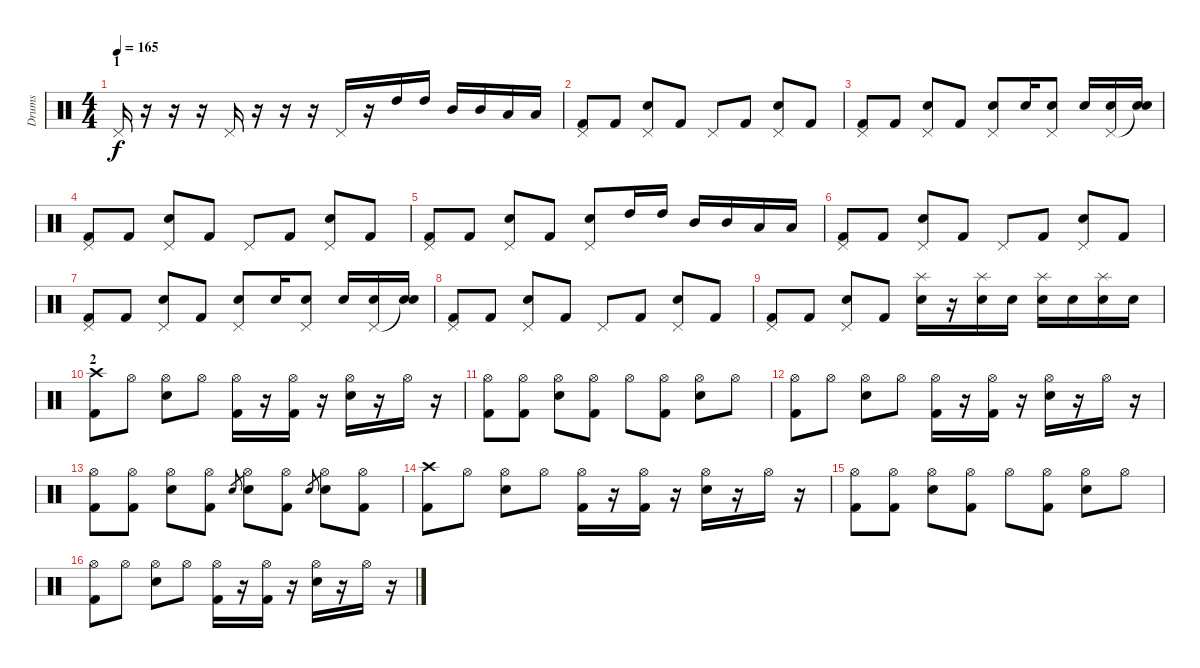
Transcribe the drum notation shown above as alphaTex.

\track ("Drums" "Drums") {instrument percussion}
\staff {score}
\articulation defaults
\ts (4 4)
\section ("" "1")
\tempo 165
\clef neutral
\ks c "Pedal Hi-Hat (hit)".16{dy f}
r.16 r.16 r.16 "Pedal Hi-Hat (hit)".16 r.16 r.16 r.16 "Pedal Hi-Hat (hit)".16 r.16 "High Tom (hit)".16 "High Tom (hit)".16 "Mid Tom (hit)".16 "Mid Tom (hit)".16 "Low Tom (hit)".16 "Low Tom (hit)".16 |
("Pedal Hi-Hat (hit)" "Kick (hit) 2").8 "Kick (hit) 2".8 ("Pedal Hi-Hat (hit)" "Snare (hit) 2").8 "Kick (hit) 2".8 "Pedal Hi-Hat (hit)".8 "Kick (hit) 2".8 ("Pedal Hi-Hat (hit)" "Snare (hit) 2").8 "Kick (hit) 2".8 |
("Pedal Hi-Hat (hit)" "Kick (hit) 2").8 "Kick (hit) 2".8 ("Pedal Hi-Hat (hit)" "Snare (hit) 2").8 "Kick (hit) 2".8 ("Pedal Hi-Hat (hit)" "Snare (hit) 2").8 "Snare (hit) 2".16 ("Pedal Hi-Hat (hit)" "Snare (hit) 2").8 "Snare (hit) 2".16 ("Pedal Hi-Hat (hit)" "Snare (hit) 2").16 ("Snare (hit)"{t} "Snare (hit) 2").16 |
("Pedal Hi-Hat (hit)" "Kick (hit) 2").8 "Kick (hit) 2".8 ("Pedal Hi-Hat (hit)" "Snare (hit) 2").8 "Kick (hit) 2".8 "Pedal Hi-Hat (hit)".8 "Kick (hit) 2".8 ("Pedal Hi-Hat (hit)" "Snare (hit) 2").8 "Kick (hit) 2".8 |
("Pedal Hi-Hat (hit)" "Kick (hit) 2").8 "Kick (hit) 2".8 ("Pedal Hi-Hat (hit)" "Snare (hit) 2").8 "Kick (hit) 2".8 ("Pedal Hi-Hat (hit)" "Snare (hit) 2").8 "High Tom (hit)".16 "High Tom (hit)".16 "Mid Tom (hit)".16 "Mid Tom (hit)".16 "Low Tom (hit)".16 "Low Tom (hit)".16 |
("Pedal Hi-Hat (hit)" "Kick (hit) 2").8 "Kick (hit) 2".8 ("Pedal Hi-Hat (hit)" "Snare (hit) 2").8 "Kick (hit) 2".8 "Pedal Hi-Hat (hit)".8 "Kick (hit) 2".8 ("Pedal Hi-Hat (hit)" "Snare (hit) 2").8 "Kick (hit) 2".8 |
("Pedal Hi-Hat (hit)" "Kick (hit) 2").8 "Kick (hit) 2".8 ("Pedal Hi-Hat (hit)" "Snare (hit) 2").8 "Kick (hit) 2".8 ("Pedal Hi-Hat (hit)" "Snare (hit) 2").8 "Snare (hit) 2".16 ("Pedal Hi-Hat (hit)" "Snare (hit) 2").8 "Snare (hit) 2".16 ("Pedal Hi-Hat (hit)" "Snare (hit) 2").16 ("Snare (hit)"{t} "Snare (hit) 2").16 |
("Pedal Hi-Hat (hit)" "Kick (hit) 2").8 "Kick (hit) 2".8 ("Pedal Hi-Hat (hit)" "Snare (hit) 2").8 "Kick (hit) 2".8 "Pedal Hi-Hat (hit)".8 "Kick (hit) 2".8 ("Pedal Hi-Hat (hit)" "Snare (hit) 2").8 "Kick (hit) 2".8 |
("Pedal Hi-Hat (hit)" "Kick (hit) 2").8 "Kick (hit) 2".8 ("Pedal Hi-Hat (hit)" "Snare (hit) 2").8 "Kick (hit) 2".8 ("Splash (hit)" "Snare (hit) 2").16 r.16 ("Splash (hit)" "Snare (hit) 2").16 "Snare (hit) 2".16 ("Splash (hit)" "Snare (hit) 2").16 "Snare (hit) 2".16 ("Splash (hit)" "Snare (hit) 2").16 "Snare (hit) 2".16 |
\section ("" "2")
("Crash high (hit)" "Kick (hit) 2").8 "Hi-Hat (open)".8 ("Hi-Hat (open)" "Snare (hit) 2").8 "Hi-Hat (open)".8 ("Hi-Hat (open)" "Kick (hit) 2").16 r.16 ("Hi-Hat (open)" "Kick (hit) 2").16 r.16 ("Hi-Hat (open)" "Snare (hit) 2").16 r.16 "Hi-Hat (open)".16 r.16 |
("Hi-Hat (open)" "Kick (hit) 2").8 ("Hi-Hat (open)" "Kick (hit) 2").8 ("Hi-Hat (open)" "Snare (hit) 2").8 ("Hi-Hat (open)" "Kick (hit) 2").8 "Hi-Hat (open)".8 ("Hi-Hat (open)" "Kick (hit) 2").8 ("Hi-Hat (open)" "Snare (hit) 2").8 "Hi-Hat (open)".8 |
("Hi-Hat (open)" "Kick (hit) 2").8 "Hi-Hat (open)".8 ("Hi-Hat (open)" "Snare (hit) 2").8 "Hi-Hat (open)".8 ("Hi-Hat (open)" "Kick (hit) 2").16 r.16 ("Hi-Hat (open)" "Kick (hit) 2").16 r.16 ("Hi-Hat (open)" "Snare (hit) 2").16 r.16 "Hi-Hat (open)".16 r.16 |
("Hi-Hat (open)" "Kick (hit) 2").8 ("Hi-Hat (open)" "Kick (hit) 2").8 ("Hi-Hat (open)" "Snare (hit) 2").8 ("Hi-Hat (open)" "Kick (hit) 2").8 "Snare (hit) 2".8{gr} ("Hi-Hat (open)" "Snare (hit) 2").8 ("Hi-Hat (open)" "Kick (hit) 2").8 "Snare (hit) 2".8{gr} ("Hi-Hat (open)" "Snare (hit) 2").8 ("Hi-Hat (open)" "Kick (hit) 2").8 |
("Crash high (hit)" "Kick (hit) 2").8 "Hi-Hat (open)".8 ("Hi-Hat (open)" "Snare (hit) 2").8 "Hi-Hat (open)".8 ("Hi-Hat (open)" "Kick (hit) 2").16 r.16 ("Hi-Hat (open)" "Kick (hit) 2").16 r.16 ("Hi-Hat (open)" "Snare (hit) 2").16 r.16 "Hi-Hat (open)".16 r.16 |
("Hi-Hat (open)" "Kick (hit) 2").8 ("Hi-Hat (open)" "Kick (hit) 2").8 ("Hi-Hat (open)" "Snare (hit) 2").8 ("Hi-Hat (open)" "Kick (hit) 2").8 "Hi-Hat (open)".8 ("Hi-Hat (open)" "Kick (hit) 2").8 ("Hi-Hat (open)" "Snare (hit) 2").8 "Hi-Hat (open)".8 |
("Hi-Hat (open)" "Kick (hit) 2").8 "Hi-Hat (open)".8 ("Hi-Hat (open)" "Snare (hit) 2").8 "Hi-Hat (open)".8 ("Hi-Hat (open)" "Kick (hit) 2").16 r.16 ("Hi-Hat (open)" "Kick (hit) 2").16 r.16 ("Hi-Hat (open)" "Snare (hit) 2").16 r.16 "Hi-Hat (open)".16 r.16
